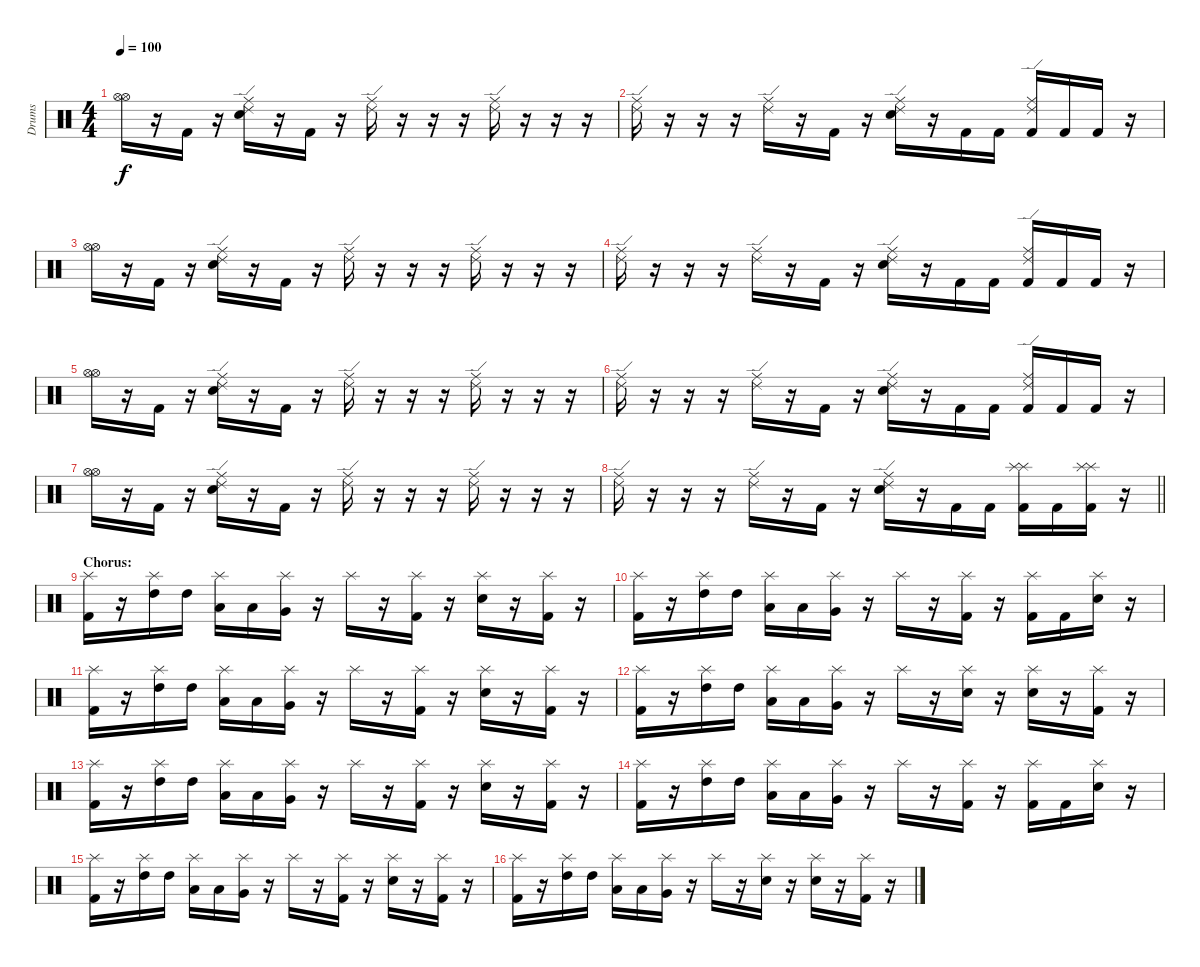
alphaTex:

\track ("Drums" "Drums") {instrument percussion}
\staff {score}
\articulation defaults
\ts (4 4)
\tempo 100
\clef neutral
\ks c
("Hi-Hat (open)" "Hi-Hat (open)").16{dy f} r.16 "Kick (hit) 2".16 r.16 ("Ride (middle)" "Ride (edge) 2" "Electric Snare (hit)").16 r.16 "Kick (hit) 2".16 r.16 ("Ride (middle)" "Ride (edge) 2").16 r.16 r.16 r.16 ("Ride (middle)" "Ride (edge) 2").16 r.16 r.16 r.16 |
("Ride (middle)" "Ride (edge) 2").16 r.16 r.16 r.16 ("Ride (middle)" "Ride (edge) 2").16 r.16 "Kick (hit) 2".16 r.16 ("Ride (middle)" "Ride (edge) 2" "Electric Snare (hit)").16 r.16 "Kick (hit) 2".16 "Kick (hit) 2".16 ("Ride (middle)" "Ride (edge) 2" "Kick (hit) 2").16 "Kick (hit) 2".16 "Kick (hit) 2".16 r.16 |
("Hi-Hat (open)" "Hi-Hat (open)").16 r.16 "Kick (hit) 2".16 r.16 ("Ride (middle)" "Ride (edge) 2" "Electric Snare (hit)").16 r.16 "Kick (hit) 2".16 r.16 ("Ride (middle)" "Ride (edge) 2").16 r.16 r.16 r.16 ("Ride (middle)" "Ride (edge) 2").16 r.16 r.16 r.16 |
("Ride (middle)" "Ride (edge) 2").16 r.16 r.16 r.16 ("Ride (middle)" "Ride (edge) 2").16 r.16 "Kick (hit) 2".16 r.16 ("Ride (middle)" "Ride (edge) 2" "Electric Snare (hit)").16 r.16 "Kick (hit) 2".16 "Kick (hit) 2".16 ("Ride (middle)" "Ride (edge) 2" "Kick (hit) 2").16 "Kick (hit) 2".16 "Kick (hit) 2".16 r.16 |
("Hi-Hat (open)" "Hi-Hat (open)").16 r.16 "Kick (hit) 2".16 r.16 ("Ride (middle)" "Ride (edge) 2" "Electric Snare (hit)").16 r.16 "Kick (hit) 2".16 r.16 ("Ride (middle)" "Ride (edge) 2").16 r.16 r.16 r.16 ("Ride (middle)" "Ride (edge) 2").16 r.16 r.16 r.16 |
("Ride (middle)" "Ride (edge) 2").16 r.16 r.16 r.16 ("Ride (middle)" "Ride (edge) 2").16 r.16 "Kick (hit) 2".16 r.16 ("Ride (middle)" "Ride (edge) 2" "Electric Snare (hit)").16 r.16 "Kick (hit) 2".16 "Kick (hit) 2".16 ("Ride (middle)" "Ride (edge) 2" "Kick (hit) 2").16 "Kick (hit) 2".16 "Kick (hit) 2".16 r.16 |
("Hi-Hat (open)" "Hi-Hat (open)").16 r.16 "Kick (hit) 2".16 r.16 ("Ride (middle)" "Ride (edge) 2" "Electric Snare (hit)").16 r.16 "Kick (hit) 2".16 r.16 ("Ride (middle)" "Ride (edge) 2").16 r.16 r.16 r.16 ("Ride (middle)" "Ride (edge) 2").16 r.16 r.16 r.16 |
\barLineRight lightlight
("Ride (middle)" "Ride (edge) 2").16 r.16 r.16 r.16 ("Ride (middle)" "Ride (edge) 2").16 r.16 "Kick (hit) 2".16 r.16 ("Ride (middle)" "Ride (edge) 2" "Electric Snare (hit)").16 r.16 "Kick (hit) 2".16 "Kick (hit) 2".16 ("Splash (hit)" "Splash (hit)" "Kick (hit) 2").16 "Kick (hit) 2".16 ("Splash (hit)" "Splash (hit)" "Kick (hit) 2").16 r.16 |
\section ("" "Chorus:")
("Splash (hit)" "Kick (hit) 2").16 r.16 ("Splash (hit)" "High Tom (hit)").16 "High Tom (hit)".16 ("Splash (hit)" "Low Tom (hit)").16 "Low Tom (hit)".16 ("Splash (hit)" "Very Low Tom (hit)").16 r.16 "Splash (hit)".16 r.16 ("Splash (hit)" "Kick (hit) 2").16 r.16 ("Splash (hit)" "Electric Snare (hit)").16 r.16 ("Splash (hit)" "Kick (hit) 2").16 r.16 |
("Splash (hit)" "Kick (hit) 2").16 r.16 ("Splash (hit)" "High Tom (hit)").16 "High Tom (hit)".16 ("Splash (hit)" "Low Tom (hit)").16 "Low Tom (hit)".16 ("Splash (hit)" "Very Low Tom (hit)").16 r.16 "Splash (hit)".16 r.16 ("Splash (hit)" "Kick (hit) 2").16 r.16 ("Splash (hit)" "Kick (hit) 2").16 "Kick (hit) 2".16 ("Splash (hit)" "Electric Snare (hit)").16 r.16 |
("Splash (hit)" "Kick (hit) 2").16 r.16 ("Splash (hit)" "High Tom (hit)").16 "High Tom (hit)".16 ("Splash (hit)" "Low Tom (hit)").16 "Low Tom (hit)".16 ("Splash (hit)" "Very Low Tom (hit)").16 r.16 "Splash (hit)".16 r.16 ("Splash (hit)" "Kick (hit) 2").16 r.16 ("Splash (hit)" "Electric Snare (hit)").16 r.16 ("Splash (hit)" "Kick (hit) 2").16 r.16 |
("Splash (hit)" "Kick (hit) 2").16 r.16 ("Splash (hit)" "High Tom (hit)").16 "High Tom (hit)".16 ("Splash (hit)" "Low Tom (hit)").16 "Low Tom (hit)".16 ("Splash (hit)" "Very Low Tom (hit)").16 r.16 "Splash (hit)".16 r.16 ("Splash (hit)" "Electric Snare (hit)").16 r.16 ("Splash (hit)" "Electric Snare (hit)").16 r.16 ("Splash (hit)" "Kick (hit) 2").16 r.16 |
("Splash (hit)" "Kick (hit) 2").16 r.16 ("Splash (hit)" "High Tom (hit)").16 "High Tom (hit)".16 ("Splash (hit)" "Low Tom (hit)").16 "Low Tom (hit)".16 ("Splash (hit)" "Very Low Tom (hit)").16 r.16 "Splash (hit)".16 r.16 ("Splash (hit)" "Kick (hit) 2").16 r.16 ("Splash (hit)" "Electric Snare (hit)").16 r.16 ("Splash (hit)" "Kick (hit) 2").16 r.16 |
("Splash (hit)" "Kick (hit) 2").16 r.16 ("Splash (hit)" "High Tom (hit)").16 "High Tom (hit)".16 ("Splash (hit)" "Low Tom (hit)").16 "Low Tom (hit)".16 ("Splash (hit)" "Very Low Tom (hit)").16 r.16 "Splash (hit)".16 r.16 ("Splash (hit)" "Kick (hit) 2").16 r.16 ("Splash (hit)" "Kick (hit) 2").16 "Kick (hit) 2".16 ("Splash (hit)" "Electric Snare (hit)").16 r.16 |
("Splash (hit)" "Kick (hit) 2").16 r.16 ("Splash (hit)" "High Tom (hit)").16 "High Tom (hit)".16 ("Splash (hit)" "Low Tom (hit)").16 "Low Tom (hit)".16 ("Splash (hit)" "Very Low Tom (hit)").16 r.16 "Splash (hit)".16 r.16 ("Splash (hit)" "Kick (hit) 2").16 r.16 ("Splash (hit)" "Electric Snare (hit)").16 r.16 ("Splash (hit)" "Kick (hit) 2").16 r.16 |
("Splash (hit)" "Kick (hit) 2").16 r.16 ("Splash (hit)" "High Tom (hit)").16 "High Tom (hit)".16 ("Splash (hit)" "Low Tom (hit)").16 "Low Tom (hit)".16 ("Splash (hit)" "Very Low Tom (hit)").16 r.16 "Splash (hit)".16 r.16 ("Splash (hit)" "Electric Snare (hit)").16 r.16 ("Splash (hit)" "Electric Snare (hit)").16 r.16 ("Splash (hit)" "Kick (hit) 2").16 r.16
